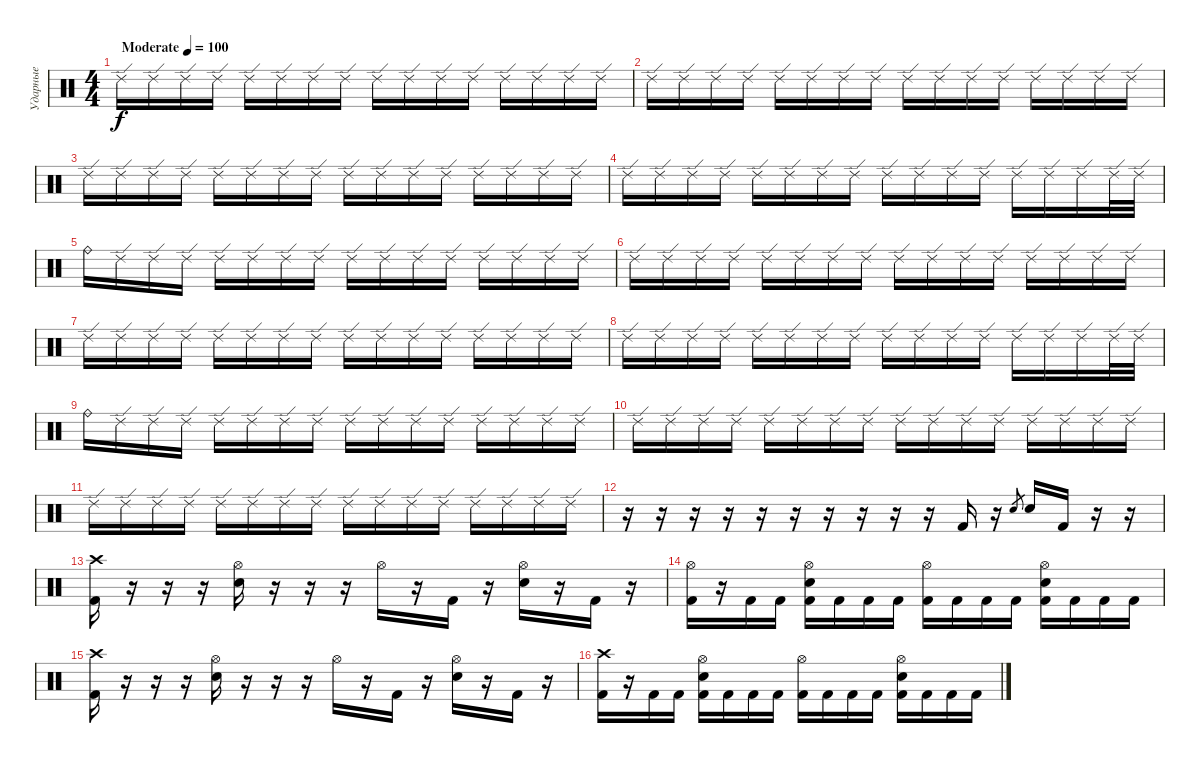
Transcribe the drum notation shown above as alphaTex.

\track ("Ударные" "Ударные") {instrument percussion}
\staff {score}
\articulation defaults
\ts (4 4)
\tempo (100 "Moderate")
\clef neutral
\ks c "Ride (edge) 2".16{dy f} "Ride (edge) 2".16 "Ride (edge) 2".16 "Ride (edge) 2".16 "Ride (edge) 2".16 "Ride (edge) 2".16 "Ride (edge) 2".16 "Ride (edge) 2".16 "Ride (edge) 2".16 "Ride (edge) 2".16 "Ride (edge) 2".16 "Ride (edge) 2".16 "Ride (edge) 2".16 "Ride (edge) 2".16 "Ride (edge) 2".16 "Ride (edge) 2".16
|
"Ride (edge) 2".16 "Ride (edge) 2".16 "Ride (edge) 2".16 "Ride (edge) 2".16 "Ride (edge) 2".16 "Ride (edge) 2".16 "Ride (edge) 2".16 "Ride (edge) 2".16 "Ride (edge) 2".16 "Ride (edge) 2".16 "Ride (edge) 2".16 "Ride (edge) 2".16 "Ride (edge) 2".16 "Ride (edge) 2".16 "Ride (edge) 2".16 "Ride (edge) 2".16 |
"Ride (edge) 2".16 "Ride (edge) 2".16 "Ride (edge) 2".16 "Ride (edge) 2".16 "Ride (edge) 2".16 "Ride (edge) 2".16 "Ride (edge) 2".16 "Ride (edge) 2".16 "Ride (edge) 2".16 "Ride (edge) 2".16 "Ride (edge) 2".16 "Ride (edge) 2".16 "Ride (edge) 2".16 "Ride (edge) 2".16 "Ride (edge) 2".16 "Ride (edge) 2".16 |
"Ride (edge) 2".16 "Ride (edge) 2".16 "Ride (edge) 2".16 "Ride (edge) 2".16 "Ride (edge) 2".16 "Ride (edge) 2".16 "Ride (edge) 2".16 "Ride (edge) 2".16 "Ride (edge) 2".16 "Ride (edge) 2".16 "Ride (edge) 2".16 "Ride (edge) 2".16 "Ride (edge) 2".16 "Ride (edge) 2".16 "Ride (edge) 2".16 "Ride (edge) 2".32 "Ride (edge) 2".32 |
"Ride (bell)".16 "Ride (edge) 2".16 "Ride (edge) 2".16 "Ride (edge) 2".16 "Ride (edge) 2".16 "Ride (edge) 2".16 "Ride (edge) 2".16 "Ride (edge) 2".16 "Ride (edge) 2".16 "Ride (edge) 2".16 "Ride (edge) 2".16 "Ride (edge) 2".16 "Ride (edge) 2".16 "Ride (edge) 2".16 "Ride (edge) 2".16 "Ride (edge) 2".16 |
"Ride (edge) 2".16 "Ride (edge) 2".16 "Ride (edge) 2".16 "Ride (edge) 2".16 "Ride (edge) 2".16 "Ride (edge) 2".16 "Ride (edge) 2".16 "Ride (edge) 2".16 "Ride (edge) 2".16 "Ride (edge) 2".16 "Ride (edge) 2".16 "Ride (edge) 2".16 "Ride (edge) 2".16 "Ride (edge) 2".16 "Ride (edge) 2".16 "Ride (edge) 2".16 |
"Ride (edge) 2".16 "Ride (edge) 2".16 "Ride (edge) 2".16 "Ride (edge) 2".16 "Ride (edge) 2".16 "Ride (edge) 2".16 "Ride (edge) 2".16 "Ride (edge) 2".16 "Ride (edge) 2".16 "Ride (edge) 2".16 "Ride (edge) 2".16 "Ride (edge) 2".16 "Ride (edge) 2".16 "Ride (edge) 2".16 "Ride (edge) 2".16 "Ride (edge) 2".16 |
"Ride (edge) 2".16 "Ride (edge) 2".16 "Ride (edge) 2".16 "Ride (edge) 2".16 "Ride (edge) 2".16 "Ride (edge) 2".16 "Ride (edge) 2".16 "Ride (edge) 2".16 "Ride (edge) 2".16 "Ride (edge) 2".16 "Ride (edge) 2".16 "Ride (edge) 2".16 "Ride (edge) 2".16 "Ride (edge) 2".16 "Ride (edge) 2".16 "Ride (edge) 2".32 "Ride (edge) 2".32 |
"Ride (bell)".16 "Ride (edge) 2".16 "Ride (edge) 2".16 "Ride (edge) 2".16 "Ride (edge) 2".16 "Ride (edge) 2".16 "Ride (edge) 2".16 "Ride (edge) 2".16 "Ride (edge) 2".16 "Ride (edge) 2".16 "Ride (edge) 2".16 "Ride (edge) 2".16 "Ride (edge) 2".16 "Ride (edge) 2".16 "Ride (edge) 2".16 "Ride (edge) 2".16 |
"Ride (edge) 2".16 "Ride (edge) 2".16 "Ride (edge) 2".16 "Ride (edge) 2".16 "Ride (edge) 2".16 "Ride (edge) 2".16 "Ride (edge) 2".16 "Ride (edge) 2".16 "Ride (edge) 2".16 "Ride (edge) 2".16 "Ride (edge) 2".16 "Ride (edge) 2".16 "Ride (edge) 2".16 "Ride (edge) 2".16 "Ride (edge) 2".16 "Ride (edge) 2".16 |
"Ride (edge) 2".16 "Ride (edge) 2".16 "Ride (edge) 2".16 "Ride (edge) 2".16 "Ride (edge) 2".16 "Ride (edge) 2".16 "Ride (edge) 2".16 "Ride (edge) 2".16 "Ride (edge) 2".16 "Ride (edge) 2".16 "Ride (edge) 2".16 "Ride (edge) 2".16 "Ride (edge) 2".16 "Ride (edge) 2".16 "Ride (edge) 2".16 "Ride (edge) 2".16 |
r.16 r.16 r.16 r.16 r.16 r.16 r.16 r.16 r.16 r.16 "Kick (hit) 2".16 r.16 "Electric Snare (hit)".8{gr} "Electric Snare (hit)".16 "Kick (hit) 2".16 r.16 r.16 |
("Crash high (hit)" "Kick (hit) 2").16 r.16 r.16 r.16 ("Hi-Hat (open)" "Electric Snare (hit)").16 r.16 r.16 r.16 "Hi-Hat (open)".16 r.16 "Kick (hit) 2".16 r.16 ("Hi-Hat (open)" "Electric Snare (hit)").16 r.16 "Kick (hit) 2".16 r.16 |
("Hi-Hat (open)" "Kick (hit) 2").16 r.16 "Kick (hit) 2".16 "Kick (hit) 2".16 ("Hi-Hat (open)" "Electric Snare (hit)" "Kick (hit) 2").16 "Kick (hit) 2".16 "Kick (hit) 2".16 "Kick (hit) 2".16 ("Hi-Hat (open)" "Kick (hit) 2").16 "Kick (hit) 2".16 "Kick (hit) 2".16 "Kick (hit) 2".16 ("Hi-Hat (open)" "Electric Snare (hit)" "Kick (hit) 2").16 "Kick (hit) 2".16 "Kick (hit) 2".16 "Kick (hit) 2".16 |
("Crash high (hit)" "Kick (hit) 2").16 r.16 r.16 r.16 ("Hi-Hat (open)" "Electric Snare (hit)").16 r.16 r.16 r.16 "Hi-Hat (open)".16 r.16 "Kick (hit) 2".16 r.16 ("Hi-Hat (open)" "Electric Snare (hit)").16 r.16 "Kick (hit) 2".16 r.16 |
("Crash high (hit)" "Kick (hit) 2").16 r.16 "Kick (hit) 2".16 "Kick (hit) 2".16 ("Hi-Hat (open)" "Electric Snare (hit)" "Kick (hit) 2").16 "Kick (hit) 2".16 "Kick (hit) 2".16 "Kick (hit) 2".16 ("Hi-Hat (open)" "Kick (hit) 2").16 "Kick (hit) 2".16 "Kick (hit) 2".16 "Kick (hit) 2".16 ("Hi-Hat (open)" "Electric Snare (hit)" "Kick (hit) 2").16 "Kick (hit) 2".16 "Kick (hit) 2".16 "Kick (hit) 2".16
